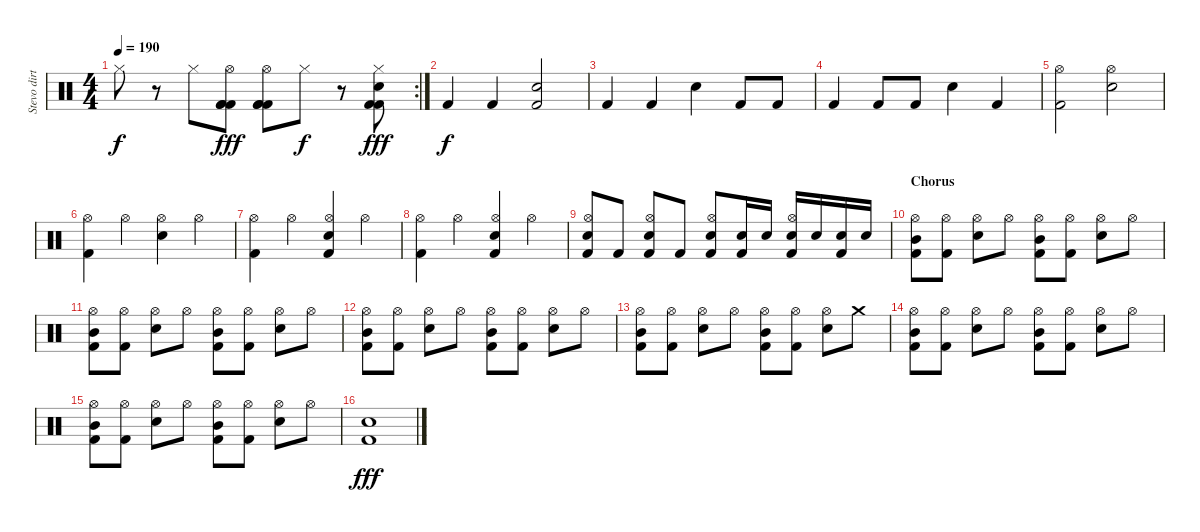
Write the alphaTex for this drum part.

\track ("Stevo dirty poo (drummer)" "Stevo dirt") {instrument percussion}
\staff {score}
\articulation defaults
\rc 2
\ts (4 4)
\tempo 190
\clef neutral
\ks c "Hi-Hat (closed)".8{dy f}
r.8 "Hi-Hat (closed)".8 ("Kick (hit) 2" "Kick (hit) 2" "Hi-Hat (open)" "Kick (hit) 2").8{dy fff} ("Kick (hit) 2" "Kick (hit) 2" "Hi-Hat (open)" "Kick (hit) 2").8 "Hi-Hat (closed)".8{dy f} r.8 ("Snare (hit) 2" "Hi-Hat (closed)" "Kick (hit) 2" "Kick (hit) 2").8{dy fff} |
"Kick (hit) 2".4{dy f} "Kick (hit) 2".4 ("Snare (hit) 2" "Kick (hit) 2").2 |
"Kick (hit) 2".4 "Kick (hit) 2".4 "Snare (hit) 2".4 "Kick (hit) 2".8 "Kick (hit) 2".8 |
"Kick (hit) 2".4 "Kick (hit) 2".8 "Kick (hit) 2".8 "Snare (hit) 2".4 "Kick (hit) 2".4 |
("Hi-Hat (open)" "Kick (hit) 2").2 ("Snare (hit) 2" "Hi-Hat (open)").2 |
("Hi-Hat (open)" "Kick (hit) 2").4 "Hi-Hat (open)".4 ("Snare (hit) 2" "Hi-Hat (open)").4 "Hi-Hat (open)".4 |
("Hi-Hat (open)" "Kick (hit) 2").4 "Hi-Hat (open)".4 ("Snare (hit) 2" "Hi-Hat (open)" "Kick (hit) 2").4 "Hi-Hat (open)".4 |
("Hi-Hat (open)" "Kick (hit) 2").4 "Hi-Hat (open)".4 ("Snare (hit) 2" "Hi-Hat (open)" "Kick (hit) 2").4 "Hi-Hat (open)".4 |
("Snare (hit) 2" "Hi-Hat (open)" "Kick (hit) 2").8 "Kick (hit) 2".8 ("Snare (hit) 2" "Hi-Hat (open)" "Kick (hit) 2").8 "Kick (hit) 2".8 ("Snare (hit) 2" "Hi-Hat (open)" "Kick (hit) 2").8 ("Snare (hit) 2" "Kick (hit) 2").16 "Snare (hit) 2".16 ("Snare (hit) 2" "Hi-Hat (open)" "Kick (hit) 2").16 "Snare (hit) 2".16 ("Snare (hit) 2" "Kick (hit) 2").16 "Snare (hit) 2".16 |
\section ("" "Chorus")
("Mid Tom (hit)" "Hi-Hat (open)" "Kick (hit) 2").8 ("Hi-Hat (open)" "Kick (hit) 2").8 ("Snare (hit) 2" "Hi-Hat (open)").8 "Hi-Hat (open)".8 ("Mid Tom (hit)" "Hi-Hat (open)" "Kick (hit) 2").8 ("Hi-Hat (open)" "Kick (hit) 2").8 ("Snare (hit) 2" "Hi-Hat (open)").8 "Hi-Hat (open)".8 |
("Mid Tom (hit)" "Hi-Hat (open)" "Kick (hit) 2").8 ("Hi-Hat (open)" "Kick (hit) 2").8 ("Snare (hit) 2" "Hi-Hat (open)").8 "Hi-Hat (open)".8 ("Mid Tom (hit)" "Hi-Hat (open)" "Kick (hit) 2").8 ("Hi-Hat (open)" "Kick (hit) 2").8 ("Snare (hit) 2" "Hi-Hat (open)").8 "Hi-Hat (open)".8 |
("Mid Tom (hit)" "Hi-Hat (open)" "Kick (hit) 2").8 ("Hi-Hat (open)" "Kick (hit) 2").8 ("Snare (hit) 2" "Hi-Hat (open)").8 "Hi-Hat (open)".8 ("Mid Tom (hit)" "Hi-Hat (open)" "Kick (hit) 2").8 ("Hi-Hat (open)" "Kick (hit) 2").8 ("Snare (hit) 2" "Hi-Hat (open)").8 "Hi-Hat (open)".8 |
("Mid Tom (hit)" "Hi-Hat (open)" "Kick (hit) 2").8 ("Hi-Hat (open)" "Kick (hit) 2").8 ("Snare (hit) 2" "Hi-Hat (open)").8 "Hi-Hat (open)".8 ("Mid Tom (hit)" "Hi-Hat (open)" "Kick (hit) 2").8 ("Hi-Hat (open)" "Kick (hit) 2").8 ("Snare (hit) 2" "Hi-Hat (open)").8 "Crash medium (hit)".8 |
("Mid Tom (hit)" "Hi-Hat (open)" "Kick (hit) 2").8 ("Hi-Hat (open)" "Kick (hit) 2").8 ("Snare (hit) 2" "Hi-Hat (open)").8 "Hi-Hat (open)".8 ("Mid Tom (hit)" "Hi-Hat (open)" "Kick (hit) 2").8 ("Hi-Hat (open)" "Kick (hit) 2").8 ("Snare (hit) 2" "Hi-Hat (open)").8 "Hi-Hat (open)".8 |
("Mid Tom (hit)" "Hi-Hat (open)" "Kick (hit) 2").8 ("Hi-Hat (open)" "Kick (hit) 2").8 ("Snare (hit) 2" "Hi-Hat (open)").8 "Hi-Hat (open)".8 ("Mid Tom (hit)" "Hi-Hat (open)" "Kick (hit) 2").8 ("Hi-Hat (open)" "Kick (hit) 2").8 ("Snare (hit) 2" "Hi-Hat (open)").8 "Hi-Hat (open)".8 |
("Snare (hit) 2" "Kick (hit) 2").1{dy fff}
